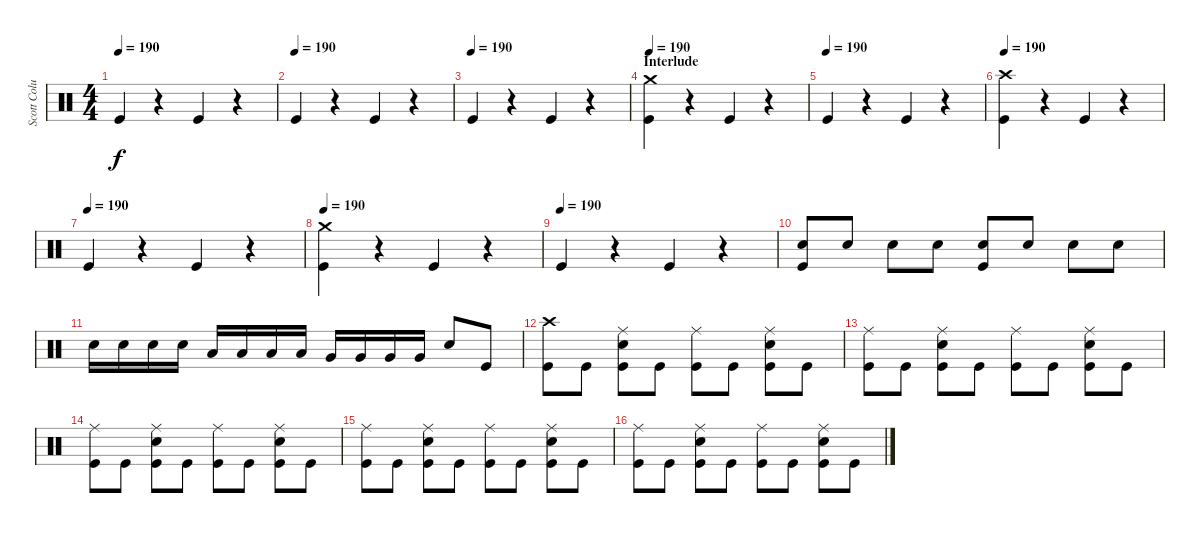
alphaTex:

\track ("Scott Columbus" "Scott Colu") {instrument percussion}
\staff {score}
\articulation defaults
\ts (4 4)
\tempo 190
\clef neutral
\ks c "Kick (hit)".4{dy f}
r.4 "Kick (hit)".4 r.4 |
\tempo (190)
"Kick (hit)".4 r.4 "Kick (hit)".4 r.4 |
\tempo (190)
"Kick (hit)".4 r.4 "Kick (hit)".4 r.4 |
\section ("" "Interlude")
\tempo 190
("Crash medium (hit)" "Kick (hit)").4 r.4 "Kick (hit)".4 r.4 |
\tempo (190)
"Kick (hit)".4 r.4 "Kick (hit)".4 r.4 |
\tempo 190
("Crash high (hit)" "Kick (hit)").4 r.4 "Kick (hit)".4 r.4 |
\tempo (190)
"Kick (hit)".4 r.4 "Kick (hit)".4 r.4 |
\tempo 190
("Crash medium (hit)" "Kick (hit)").4 r.4 "Kick (hit)".4 r.4 |
\tempo (190)
"Kick (hit)".4 r.4 "Kick (hit)".4 r.4 |
("Snare (hit) 2" "Kick (hit)").8 "Snare (hit) 2".8 "Snare (hit) 2".8 "Snare (hit) 2".8 ("Snare (hit) 2" "Kick (hit)").8 "Snare (hit) 2".8 "Snare (hit) 2".8 "Snare (hit) 2".8 |
"Snare (hit) 2".16 "Snare (hit) 2".16 "Snare (hit) 2".16 "Snare (hit) 2".16 "Low Tom (hit)".16 "Low Tom (hit)".16 "Low Tom (hit)".16 "Low Tom (hit)".16 "Very Low Tom (hit)".16 "Very Low Tom (hit)".16 "Very Low Tom (hit)".16 "Very Low Tom (hit)".16 "Snare (hit) 2".8 "Kick (hit)".8 |
("Crash high (hit)" "Kick (hit)").8 "Kick (hit)".8 ("Ride (middle)" "Snare (hit) 2" "Kick (hit)").8 "Kick (hit)".8 ("Ride (middle)" "Kick (hit)").8 "Kick (hit)".8 ("Ride (middle)" "Snare (hit) 2" "Kick (hit)").8 "Kick (hit)".8 |
("Ride (middle)" "Kick (hit)").8 "Kick (hit)".8 ("Ride (middle)" "Snare (hit) 2" "Kick (hit)").8 "Kick (hit)".8 ("Ride (middle)" "Kick (hit)").8 "Kick (hit)".8 ("Ride (middle)" "Snare (hit) 2" "Kick (hit)").8 "Kick (hit)".8 |
("Ride (middle)" "Kick (hit)").8 "Kick (hit)".8 ("Ride (middle)" "Snare (hit) 2" "Kick (hit)").8 "Kick (hit)".8 ("Ride (middle)" "Kick (hit)").8 "Kick (hit)".8 ("Ride (middle)" "Snare (hit) 2" "Kick (hit)").8 "Kick (hit)".8 |
("Ride (middle)" "Kick (hit)").8 "Kick (hit)".8 ("Ride (middle)" "Snare (hit) 2" "Kick (hit)").8 "Kick (hit)".8 ("Ride (middle)" "Kick (hit)").8 "Kick (hit)".8 ("Ride (middle)" "Snare (hit) 2" "Kick (hit)").8 "Kick (hit)".8 |
("Ride (middle)" "Kick (hit)").8 "Kick (hit)".8 ("Ride (middle)" "Snare (hit) 2" "Kick (hit)").8 "Kick (hit)".8 ("Ride (middle)" "Kick (hit)").8 "Kick (hit)".8 ("Ride (middle)" "Snare (hit) 2" "Kick (hit)").8 "Kick (hit)".8
